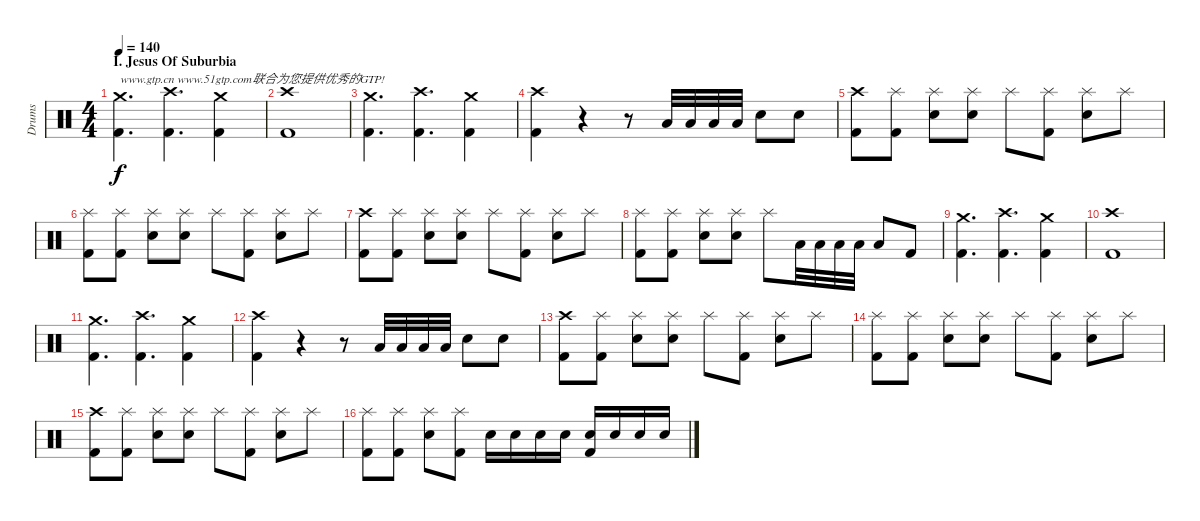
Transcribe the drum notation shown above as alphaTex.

\track ("Drums" "Drums") {instrument percussion}
\staff {score}
\articulation defaults
\ts (4 4)
\section ("" "I. Jesus Of Suburbia")
\tempo 140
\clef neutral
\ks c
("Crash medium (hit)" "Kick (hit) 2").4{d txt "www.gtp.cn www.51gtp.com联合为您提供优秀的GTP!" dy f} ("Crash high (hit)" "Kick (hit) 2").4{d} ("Crash medium (hit)" "Kick (hit) 2").4 |
("Crash high (hit)" "Kick (hit) 2").1 |
("Crash medium (hit)" "Kick (hit) 2").4{d} ("Crash high (hit)" "Kick (hit) 2").4{d} ("Crash medium (hit)" "Kick (hit) 2").4 |
("Crash high (hit)" "Kick (hit) 2").4 r.4 r.8 "Low Tom (hit)".32 "Low Tom (hit)".32 "Low Tom (hit)".32 "Low Tom (hit)".32 "Snare (hit) 2".8 "Snare (hit) 2".8 |
("Crash high (hit)" "Kick (hit) 2").8 ("Splash (hit)" "Kick (hit) 2").8 ("Splash (hit)" "Snare (hit) 2").8 ("Splash (hit)" "Snare (hit) 2").8 "Splash (hit)".8 ("Splash (hit)" "Kick (hit) 2").8 ("Splash (hit)" "Snare (hit) 2").8 "Splash (hit)".8 |
("Splash (hit)" "Kick (hit) 2").8 ("Splash (hit)" "Kick (hit) 2").8 ("Splash (hit)" "Snare (hit) 2").8 ("Splash (hit)" "Snare (hit) 2").8 "Splash (hit)".8 ("Splash (hit)" "Kick (hit) 2").8 ("Splash (hit)" "Snare (hit) 2").8 "Splash (hit)".8 |
("Crash high (hit)" "Kick (hit) 2").8 ("Splash (hit)" "Kick (hit) 2").8 ("Splash (hit)" "Snare (hit) 2").8 ("Splash (hit)" "Snare (hit) 2").8 "Splash (hit)".8 ("Splash (hit)" "Kick (hit) 2").8 ("Splash (hit)" "Snare (hit) 2").8 "Splash (hit)".8 |
("Splash (hit)" "Kick (hit) 2").8 ("Splash (hit)" "Kick (hit) 2").8 ("Splash (hit)" "Snare (hit) 2").8 ("Splash (hit)" "Snare (hit) 2").8 "Splash (hit)".8 "Low Tom (hit)".32 "Low Tom (hit)".32 "Low Tom (hit)".32 "Low Tom (hit)".32 "Low Tom (hit)".8 "Kick (hit) 2".8 |
("Crash medium (hit)" "Kick (hit) 2").4{d} ("Crash high (hit)" "Kick (hit) 2").4{d} ("Crash medium (hit)" "Kick (hit) 2").4 |
("Crash high (hit)" "Kick (hit) 2").1 |
("Crash medium (hit)" "Kick (hit) 2").4{d} ("Crash high (hit)" "Kick (hit) 2").4{d} ("Crash medium (hit)" "Kick (hit) 2").4 |
("Crash high (hit)" "Kick (hit) 2").4 r.4 r.8 "Low Tom (hit)".32 "Low Tom (hit)".32 "Low Tom (hit)".32 "Low Tom (hit)".32 "Snare (hit) 2".8 "Snare (hit) 2".8 |
("Crash high (hit)" "Kick (hit) 2").8 ("Splash (hit)" "Kick (hit) 2").8 ("Splash (hit)" "Snare (hit) 2").8 ("Splash (hit)" "Snare (hit) 2").8 "Splash (hit)".8 ("Splash (hit)" "Kick (hit) 2").8 ("Splash (hit)" "Snare (hit) 2").8 "Splash (hit)".8 |
("Splash (hit)" "Kick (hit) 2").8 ("Splash (hit)" "Kick (hit) 2").8 ("Splash (hit)" "Snare (hit) 2").8 ("Splash (hit)" "Snare (hit) 2").8 "Splash (hit)".8 ("Splash (hit)" "Kick (hit) 2").8 ("Splash (hit)" "Snare (hit) 2").8 "Splash (hit)".8 |
("Crash high (hit)" "Kick (hit) 2").8 ("Splash (hit)" "Kick (hit) 2").8 ("Splash (hit)" "Snare (hit) 2").8 ("Splash (hit)" "Snare (hit) 2").8 "Splash (hit)".8 ("Splash (hit)" "Kick (hit) 2").8 ("Splash (hit)" "Snare (hit) 2").8 "Splash (hit)".8 |
("Splash (hit)" "Kick (hit) 2").8 ("Splash (hit)" "Kick (hit) 2").8 ("Splash (hit)" "Snare (hit) 2").8 ("Splash (hit)" "Kick (hit) 2").8 "Snare (hit) 2".16 "Snare (hit) 2".16 "Snare (hit) 2".16 "Snare (hit) 2".16 ("Snare (hit) 2" "Kick (hit) 2").16 "Snare (hit) 2".16 "Snare (hit) 2".16 "Snare (hit) 2".16
